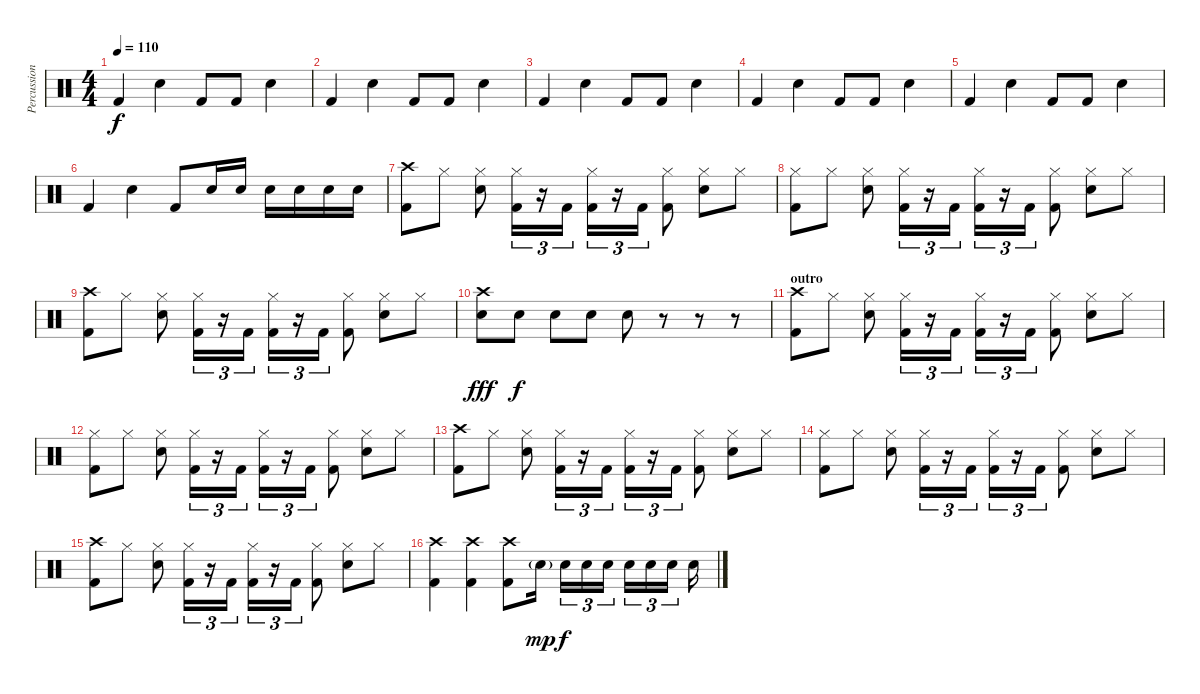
\track ("Percussion" "Percussion") {instrument percussion}
\staff {score}
\articulation defaults
\ts (4 4)
\tempo 110
\clef neutral
\ks c "Kick (hit) 2".4{dy f} "Electric Snare (hit)".4 "Kick (hit) 2".8 "Kick (hit) 2".8 "Electric Snare (hit)".4
|
"Kick (hit) 2".4 "Electric Snare (hit)".4 "Kick (hit) 2".8 "Kick (hit) 2".8 "Electric Snare (hit)".4 |
"Kick (hit) 2".4 "Electric Snare (hit)".4 "Kick (hit) 2".8 "Kick (hit) 2".8 "Electric Snare (hit)".4 |
"Kick (hit) 2".4 "Electric Snare (hit)".4 "Kick (hit) 2".8 "Kick (hit) 2".8 "Electric Snare (hit)".4 |
"Kick (hit) 2".4 "Electric Snare (hit)".4 "Kick (hit) 2".8 "Kick (hit) 2".8 "Electric Snare (hit)".4 |
"Kick (hit) 2".4 "Electric Snare (hit)".4 "Kick (hit) 2".8 "Electric Snare (hit)".16 "Electric Snare (hit)".16 "Electric Snare (hit)".16 "Electric Snare (hit)".16 "Electric Snare (hit)".16 "Electric Snare (hit)".16 |
("Crash high (hit)" "Kick (hit) 2").8 "Hi-Hat (closed)".8 ("Hi-Hat (closed)" "Electric Snare (hit)").8 ("Hi-Hat (closed)" "Kick (hit) 2").16{tu (3 2)} r.16{tu (3 2)} "Kick (hit) 2".16{tu (3 2)} ("Hi-Hat (closed)" "Kick (hit) 2").16{tu (3 2)} r.16{tu (3 2)} "Kick (hit) 2".16{tu (3 2)} ("Hi-Hat (closed)" "Kick (hit) 2").8 ("Hi-Hat (closed)" "Electric Snare (hit)").8 "Hi-Hat (closed)".8 |
("Hi-Hat (closed)" "Kick (hit) 2").8 "Hi-Hat (closed)".8 ("Hi-Hat (closed)" "Electric Snare (hit)").8 ("Hi-Hat (closed)" "Kick (hit) 2").16{tu (3 2)} r.16{tu (3 2)} "Kick (hit) 2".16{tu (3 2)} ("Hi-Hat (closed)" "Kick (hit) 2").16{tu (3 2)} r.16{tu (3 2)} "Kick (hit) 2".16{tu (3 2)} ("Hi-Hat (closed)" "Kick (hit) 2").8 ("Hi-Hat (closed)" "Electric Snare (hit)").8 "Hi-Hat (closed)".8 |
("Crash high (hit)" "Kick (hit) 2").8 "Hi-Hat (closed)".8 ("Hi-Hat (closed)" "Electric Snare (hit)").8 ("Hi-Hat (closed)" "Kick (hit) 2").16{tu (3 2)} r.16{tu (3 2)} "Kick (hit) 2".16{tu (3 2)} ("Hi-Hat (closed)" "Kick (hit) 2").16{tu (3 2)} r.16{tu (3 2)} "Kick (hit) 2".16{tu (3 2)} ("Hi-Hat (closed)" "Kick (hit) 2").8 ("Hi-Hat (closed)" "Electric Snare (hit)").8 "Hi-Hat (closed)".8 |
("Crash high (hit)" "Electric Snare (hit)").8{dy fff} "Snare (hit) 2".8{dy f} "Snare (hit) 2".8 "Snare (hit) 2".8 "Snare (hit) 2".8 r.8 r.8 r.8 |
\section ("" "outro")
("Crash high (hit)" "Kick (hit) 2").8 "Hi-Hat (closed)".8 ("Hi-Hat (closed)" "Electric Snare (hit)").8 ("Hi-Hat (closed)" "Kick (hit) 2").16{tu (3 2)} r.16{tu (3 2)} "Kick (hit) 2".16{tu (3 2)} ("Hi-Hat (closed)" "Kick (hit) 2").16{tu (3 2)} r.16{tu (3 2)} "Kick (hit) 2".16{tu (3 2)} ("Hi-Hat (closed)" "Kick (hit) 2").8 ("Hi-Hat (closed)" "Electric Snare (hit)").8 "Hi-Hat (closed)".8 |
("Hi-Hat (closed)" "Kick (hit) 2").8 "Hi-Hat (closed)".8 ("Hi-Hat (closed)" "Electric Snare (hit)").8 ("Hi-Hat (closed)" "Kick (hit) 2").16{tu (3 2)} r.16{tu (3 2)} "Kick (hit) 2".16{tu (3 2)} ("Hi-Hat (closed)" "Kick (hit) 2").16{tu (3 2)} r.16{tu (3 2)} "Kick (hit) 2".16{tu (3 2)} ("Hi-Hat (closed)" "Kick (hit) 2").8 ("Hi-Hat (closed)" "Electric Snare (hit)").8 "Hi-Hat (closed)".8 |
("Crash high (hit)" "Kick (hit) 2").8 "Hi-Hat (closed)".8 ("Hi-Hat (closed)" "Electric Snare (hit)").8 ("Hi-Hat (closed)" "Kick (hit) 2").16{tu (3 2)} r.16{tu (3 2)} "Kick (hit) 2".16{tu (3 2)} ("Hi-Hat (closed)" "Kick (hit) 2").16{tu (3 2)} r.16{tu (3 2)} "Kick (hit) 2".16{tu (3 2)} ("Hi-Hat (closed)" "Kick (hit) 2").8 ("Hi-Hat (closed)" "Electric Snare (hit)").8 "Hi-Hat (closed)".8 |
("Hi-Hat (closed)" "Kick (hit) 2").8 "Hi-Hat (closed)".8 ("Hi-Hat (closed)" "Electric Snare (hit)").8 ("Hi-Hat (closed)" "Kick (hit) 2").16{tu (3 2)} r.16{tu (3 2)} "Kick (hit) 2".16{tu (3 2)} ("Hi-Hat (closed)" "Kick (hit) 2").16{tu (3 2)} r.16{tu (3 2)} "Kick (hit) 2".16{tu (3 2)} ("Hi-Hat (closed)" "Kick (hit) 2").8 ("Hi-Hat (closed)" "Electric Snare (hit)").8 "Hi-Hat (closed)".8 |
("Crash high (hit)" "Kick (hit) 2").8 "Hi-Hat (closed)".8 ("Hi-Hat (closed)" "Electric Snare (hit)").8 ("Hi-Hat (closed)" "Kick (hit) 2").16{tu (3 2)} r.16{tu (3 2)} "Kick (hit) 2".16{tu (3 2)} ("Hi-Hat (closed)" "Kick (hit) 2").16{tu (3 2)} r.16{tu (3 2)} "Kick (hit) 2".16{tu (3 2)} ("Hi-Hat (closed)" "Kick (hit) 2").8 ("Hi-Hat (closed)" "Electric Snare (hit)").8 "Hi-Hat (closed)".8 |
("Crash high (hit)" "Kick (hit) 2").4 ("Crash high (hit)" "Kick (hit) 2").4 ("Crash high (hit)" "Kick (hit) 2").8 "Electric Snare (hit)"{g}.16{dy mp} "Electric Snare (hit)".16{tu (3 2) dy f} "Electric Snare (hit)".16{tu (3 2)} "Electric Snare (hit)".16{tu (3 2)} "Electric Snare (hit)".16{tu (3 2)} "Electric Snare (hit)".16{tu (3 2)} "Electric Snare (hit)".16{tu (3 2)} "Electric Snare (hit)".16
